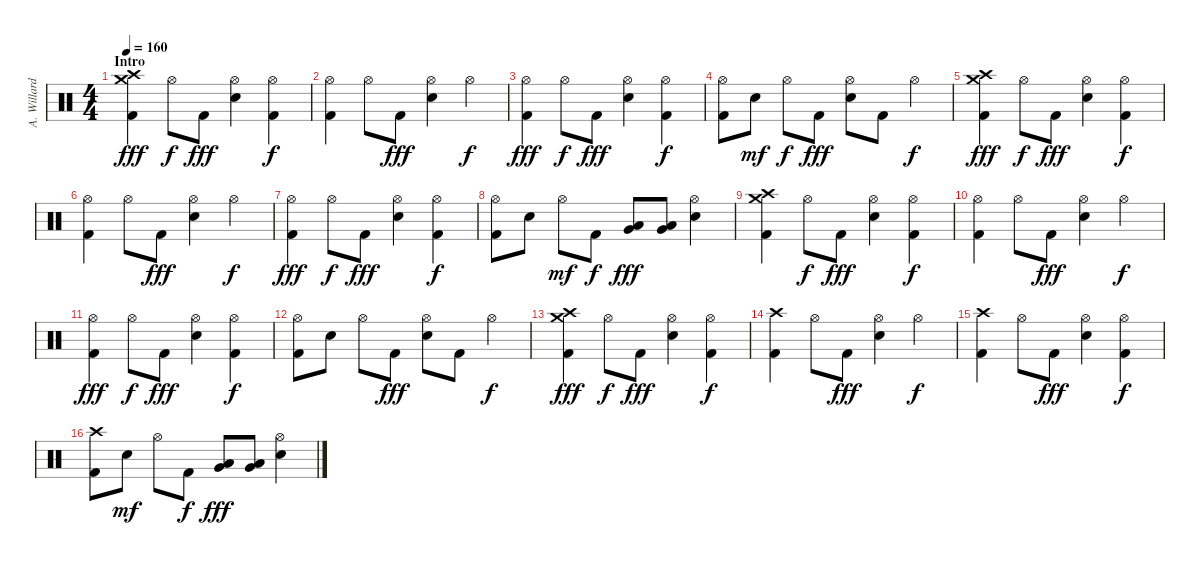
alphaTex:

\track ("A. Willard (Drums)" "A. Willard") {instrument percussion}
\staff {score}
\articulation defaults
\ts (4 4)
\section ("" "Intro")
\tempo 160
\clef neutral
\ks c
("Crash high (hit)" "Kick (hit) 2" "Crash medium (hit)").4{dy fff} "Hi-Hat (open)".8{dy f} "Kick (hit) 2".8{dy fff} ("Hi-Hat (open)" "Electric Snare (hit)").4 ("Hi-Hat (open)" "Kick (hit) 2").4{dy f} |
("Hi-Hat (open)" "Kick (hit) 2").4 "Hi-Hat (open)".8 "Kick (hit) 2".8{dy fff} ("Hi-Hat (open)" "Electric Snare (hit)").4 "Hi-Hat (open)".4{dy f} |
("Hi-Hat (open)" "Kick (hit) 2").4{dy fff} "Hi-Hat (open)".8{dy f} "Kick (hit) 2".8{dy fff} ("Hi-Hat (open)" "Electric Snare (hit)").4 ("Hi-Hat (open)" "Kick (hit) 2").4{dy f} |
("Hi-Hat (open)" "Kick (hit) 2").8 "Electric Snare (hit)".8{dy mf} "Hi-Hat (open)".8{dy f} "Kick (hit) 2".8{dy fff} ("Hi-Hat (open)" "Electric Snare (hit)").8 "Kick (hit) 2".8 "Hi-Hat (open)".4{dy f} |
("Crash high (hit)" "Kick (hit) 2" "Crash medium (hit)").4{dy fff} "Hi-Hat (open)".8{dy f} "Kick (hit) 2".8{dy fff} ("Hi-Hat (open)" "Electric Snare (hit)").4 ("Hi-Hat (open)" "Kick (hit) 2").4{dy f} |
("Hi-Hat (open)" "Kick (hit) 2").4 "Hi-Hat (open)".8 "Kick (hit) 2".8{dy fff} ("Hi-Hat (open)" "Electric Snare (hit)").4 "Hi-Hat (open)".4{dy f} |
("Hi-Hat (open)" "Kick (hit) 2").4{dy fff} "Hi-Hat (open)".8{dy f} "Kick (hit) 2".8{dy fff} ("Hi-Hat (open)" "Electric Snare (hit)").4 ("Hi-Hat (open)" "Kick (hit) 2").4{dy f} |
("Hi-Hat (open)" "Kick (hit) 2").8 "Electric Snare (hit)".8 "Hi-Hat (open)".8{dy mf} "Kick (hit) 2".8{dy f} ("Very Low Tom (hit)" "Low Floor Tom (hit)").8{dy fff} ("Very Low Tom (hit)" "Low Floor Tom (hit)").8 ("Hi-Hat (open)" "Electric Snare (hit)").4 |
("Crash high (hit)" "Kick (hit) 2" "Crash medium (hit)").4 "Hi-Hat (open)".8{dy f} "Kick (hit) 2".8{dy fff} ("Hi-Hat (open)" "Electric Snare (hit)").4 ("Hi-Hat (open)" "Kick (hit) 2").4{dy f} |
("Hi-Hat (open)" "Kick (hit) 2").4 "Hi-Hat (open)".8 "Kick (hit) 2".8{dy fff} ("Hi-Hat (open)" "Electric Snare (hit)").4 "Hi-Hat (open)".4{dy f} |
("Hi-Hat (open)" "Kick (hit) 2").4{dy fff} "Hi-Hat (open)".8{dy f} "Kick (hit) 2".8{dy fff} ("Hi-Hat (open)" "Electric Snare (hit)").4 ("Hi-Hat (open)" "Kick (hit) 2").4{dy f} |
("Hi-Hat (open)" "Kick (hit) 2").8 "Electric Snare (hit)".8 "Hi-Hat (open)".8 "Kick (hit) 2".8{dy fff} ("Hi-Hat (open)" "Electric Snare (hit)").8 "Kick (hit) 2".8 "Hi-Hat (open)".4{dy f} |
("Crash high (hit)" "Kick (hit) 2" "Crash medium (hit)").4{dy fff} "Hi-Hat (open)".8{dy f} "Kick (hit) 2".8{dy fff} ("Hi-Hat (open)" "Electric Snare (hit)").4 ("Hi-Hat (open)" "Kick (hit) 2").4{dy f} |
("Crash high (hit)" "Kick (hit) 2").4 "Hi-Hat (open)".8 "Kick (hit) 2".8{dy fff} ("Hi-Hat (open)" "Electric Snare (hit)").4 "Hi-Hat (open)".4{dy f} |
("Crash high (hit)" "Kick (hit) 2").4 "Hi-Hat (open)".8 "Kick (hit) 2".8{dy fff} ("Hi-Hat (open)" "Electric Snare (hit)").4 ("Hi-Hat (open)" "Kick (hit) 2").4{dy f} |
("Crash high (hit)" "Kick (hit) 2").8 "Electric Snare (hit)".8{dy mf} "Hi-Hat (open)".8 "Kick (hit) 2".8{dy f} ("Very Low Tom (hit)" "Low Floor Tom (hit)").8{dy fff} ("Very Low Tom (hit)" "Low Floor Tom (hit)").8 ("Hi-Hat (open)" "Electric Snare (hit)").4
